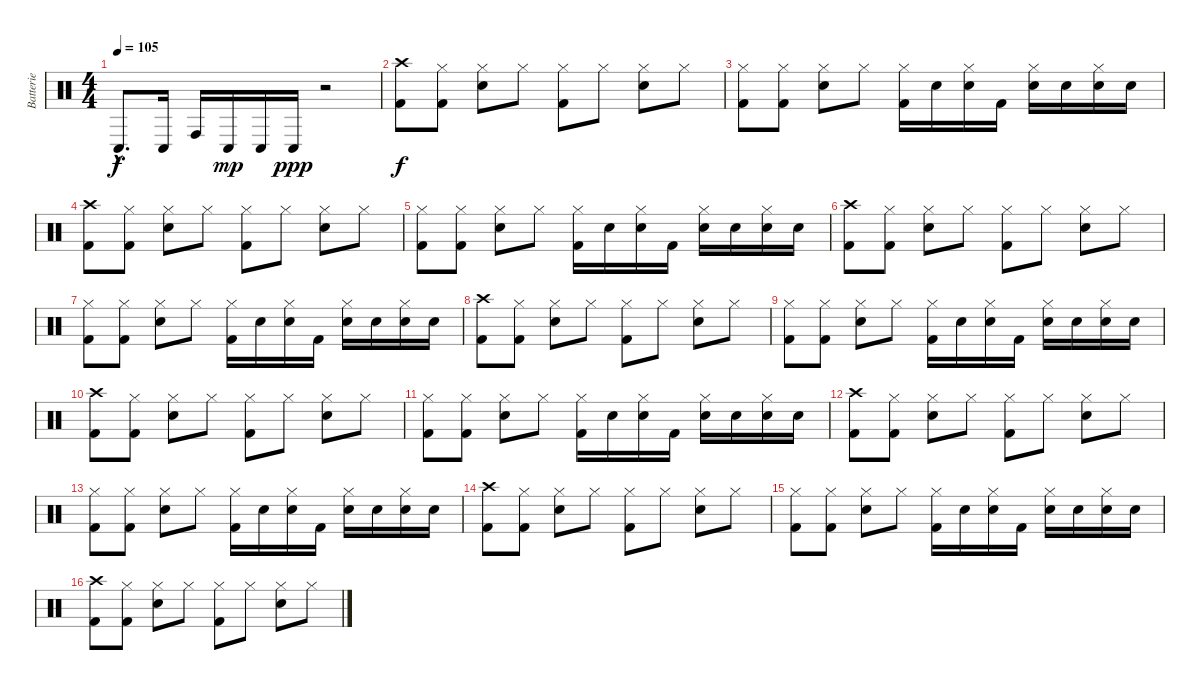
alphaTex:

\track ("Batterie" "Batterie") {instrument percussion}
\staff {score}
\articulation defaults
\ts (4 4)
\tempo 105
\clef neutral
\ks c "Conga low (hit)"{hac}.8{d dy f} "Conga low (hit)".16 "Conga high (hit)".16 "Conga low (hit)".16{dy mp} "Conga low (hit)".16 "Conga low (hit)".16{dy ppp}
r.2 |
("Crash high (hit)" "Kick (hit) 2").8{dy f} ("Hi-Hat (closed)" "Kick (hit) 2").8 ("Hi-Hat (closed)" "Electric Snare (hit)").8 "Hi-Hat (closed)".8 ("Hi-Hat (closed)" "Kick (hit) 2").8 "Hi-Hat (closed)".8 ("Hi-Hat (closed)" "Electric Snare (hit)").8 "Hi-Hat (closed)".8 |
("Hi-Hat (closed)" "Kick (hit) 2").8 ("Hi-Hat (closed)" "Kick (hit) 2").8 ("Hi-Hat (closed)" "Electric Snare (hit)").8 "Hi-Hat (closed)".8 ("Hi-Hat (closed)" "Kick (hit) 2").16 "Electric Snare (hit)".16 ("Hi-Hat (closed)" "Electric Snare (hit)").16 "Kick (hit) 2".16 ("Hi-Hat (closed)" "Electric Snare (hit)").16 "Electric Snare (hit)".16 ("Hi-Hat (closed)" "Electric Snare (hit)").16 "Electric Snare (hit)".16 |
("Crash high (hit)" "Kick (hit) 2").8 ("Hi-Hat (closed)" "Kick (hit) 2").8 ("Hi-Hat (closed)" "Electric Snare (hit)").8 "Hi-Hat (closed)".8 ("Hi-Hat (closed)" "Kick (hit) 2").8 "Hi-Hat (closed)".8 ("Hi-Hat (closed)" "Electric Snare (hit)").8 "Hi-Hat (closed)".8 |
("Hi-Hat (closed)" "Kick (hit) 2").8 ("Hi-Hat (closed)" "Kick (hit) 2").8 ("Hi-Hat (closed)" "Electric Snare (hit)").8 "Hi-Hat (closed)".8 ("Hi-Hat (closed)" "Kick (hit) 2").16 "Electric Snare (hit)".16 ("Hi-Hat (closed)" "Electric Snare (hit)").16 "Kick (hit) 2".16 ("Hi-Hat (closed)" "Electric Snare (hit)").16 "Electric Snare (hit)".16 ("Hi-Hat (closed)" "Electric Snare (hit)").16 "Electric Snare (hit)".16 |
("Crash high (hit)" "Kick (hit) 2").8 ("Hi-Hat (closed)" "Kick (hit) 2").8 ("Hi-Hat (closed)" "Electric Snare (hit)").8 "Hi-Hat (closed)".8 ("Hi-Hat (closed)" "Kick (hit) 2").8 "Hi-Hat (closed)".8 ("Hi-Hat (closed)" "Electric Snare (hit)").8 "Hi-Hat (closed)".8 |
("Hi-Hat (closed)" "Kick (hit) 2").8 ("Hi-Hat (closed)" "Kick (hit) 2").8 ("Hi-Hat (closed)" "Electric Snare (hit)").8 "Hi-Hat (closed)".8 ("Hi-Hat (closed)" "Kick (hit) 2").16 "Electric Snare (hit)".16 ("Hi-Hat (closed)" "Electric Snare (hit)").16 "Kick (hit) 2".16 ("Hi-Hat (closed)" "Electric Snare (hit)").16 "Electric Snare (hit)".16 ("Hi-Hat (closed)" "Electric Snare (hit)").16 "Electric Snare (hit)".16 |
("Crash high (hit)" "Kick (hit) 2").8 ("Hi-Hat (closed)" "Kick (hit) 2").8 ("Hi-Hat (closed)" "Electric Snare (hit)").8 "Hi-Hat (closed)".8 ("Hi-Hat (closed)" "Kick (hit) 2").8 "Hi-Hat (closed)".8 ("Hi-Hat (closed)" "Electric Snare (hit)").8 "Hi-Hat (closed)".8 |
("Hi-Hat (closed)" "Kick (hit) 2").8 ("Hi-Hat (closed)" "Kick (hit) 2").8 ("Hi-Hat (closed)" "Electric Snare (hit)").8 "Hi-Hat (closed)".8 ("Hi-Hat (closed)" "Kick (hit) 2").16 "Electric Snare (hit)".16 ("Hi-Hat (closed)" "Electric Snare (hit)").16 "Kick (hit) 2".16 ("Hi-Hat (closed)" "Electric Snare (hit)").16 "Electric Snare (hit)".16 ("Hi-Hat (closed)" "Electric Snare (hit)").16 "Electric Snare (hit)".16 |
("Crash high (hit)" "Kick (hit) 2").8 ("Hi-Hat (closed)" "Kick (hit) 2").8 ("Hi-Hat (closed)" "Electric Snare (hit)").8 "Hi-Hat (closed)".8 ("Hi-Hat (closed)" "Kick (hit) 2").8 "Hi-Hat (closed)".8 ("Hi-Hat (closed)" "Electric Snare (hit)").8 "Hi-Hat (closed)".8 |
("Hi-Hat (closed)" "Kick (hit) 2").8 ("Hi-Hat (closed)" "Kick (hit) 2").8 ("Hi-Hat (closed)" "Electric Snare (hit)").8 "Hi-Hat (closed)".8 ("Hi-Hat (closed)" "Kick (hit) 2").16 "Electric Snare (hit)".16 ("Hi-Hat (closed)" "Electric Snare (hit)").16 "Kick (hit) 2".16 ("Hi-Hat (closed)" "Electric Snare (hit)").16 "Electric Snare (hit)".16 ("Hi-Hat (closed)" "Electric Snare (hit)").16 "Electric Snare (hit)".16 |
("Crash high (hit)" "Kick (hit) 2").8 ("Hi-Hat (closed)" "Kick (hit) 2").8 ("Hi-Hat (closed)" "Electric Snare (hit)").8 "Hi-Hat (closed)".8 ("Hi-Hat (closed)" "Kick (hit) 2").8 "Hi-Hat (closed)".8 ("Hi-Hat (closed)" "Electric Snare (hit)").8 "Hi-Hat (closed)".8 |
("Hi-Hat (closed)" "Kick (hit) 2").8 ("Hi-Hat (closed)" "Kick (hit) 2").8 ("Hi-Hat (closed)" "Electric Snare (hit)").8 "Hi-Hat (closed)".8 ("Hi-Hat (closed)" "Kick (hit) 2").16 "Electric Snare (hit)".16 ("Hi-Hat (closed)" "Electric Snare (hit)").16 "Kick (hit) 2".16 ("Hi-Hat (closed)" "Electric Snare (hit)").16 "Electric Snare (hit)".16 ("Hi-Hat (closed)" "Electric Snare (hit)").16 "Electric Snare (hit)".16 |
("Crash high (hit)" "Kick (hit) 2").8 ("Hi-Hat (closed)" "Kick (hit) 2").8 ("Hi-Hat (closed)" "Electric Snare (hit)").8 "Hi-Hat (closed)".8 ("Hi-Hat (closed)" "Kick (hit) 2").8 "Hi-Hat (closed)".8 ("Hi-Hat (closed)" "Electric Snare (hit)").8 "Hi-Hat (closed)".8 |
("Hi-Hat (closed)" "Kick (hit) 2").8 ("Hi-Hat (closed)" "Kick (hit) 2").8 ("Hi-Hat (closed)" "Electric Snare (hit)").8 "Hi-Hat (closed)".8 ("Hi-Hat (closed)" "Kick (hit) 2").16 "Electric Snare (hit)".16 ("Hi-Hat (closed)" "Electric Snare (hit)").16 "Kick (hit) 2".16 ("Hi-Hat (closed)" "Electric Snare (hit)").16 "Electric Snare (hit)".16 ("Hi-Hat (closed)" "Electric Snare (hit)").16 "Electric Snare (hit)".16 |
("Crash high (hit)" "Kick (hit) 2").8 ("Hi-Hat (closed)" "Kick (hit) 2").8 ("Hi-Hat (closed)" "Electric Snare (hit)").8 "Hi-Hat (closed)".8 ("Hi-Hat (closed)" "Kick (hit) 2").8 "Hi-Hat (closed)".8 ("Hi-Hat (closed)" "Electric Snare (hit)").8 "Hi-Hat (closed)".8
